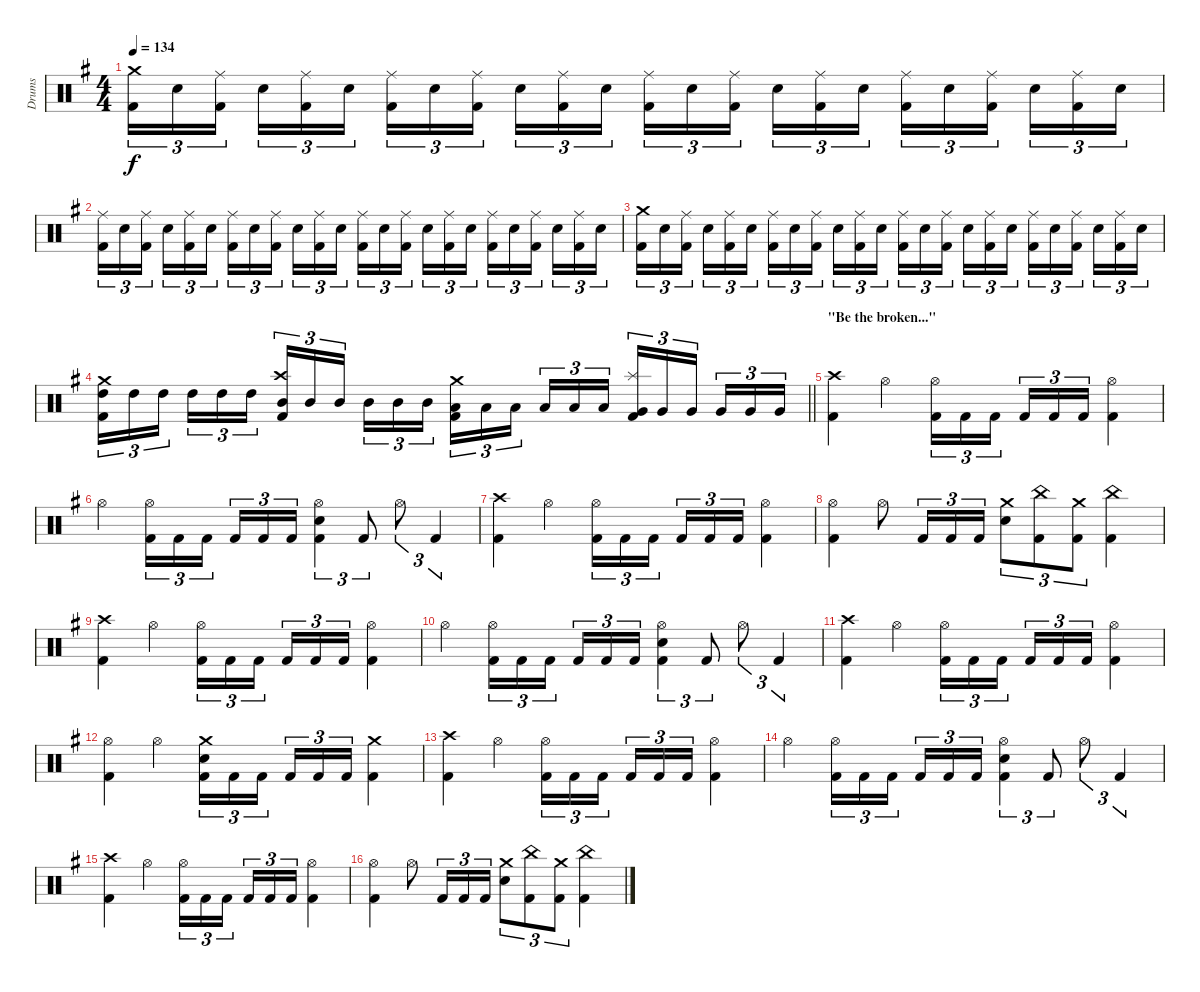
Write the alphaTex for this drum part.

\track ("Drums" "Drums") {instrument percussion}
\staff {score}
\articulation defaults
\ts (4 4)
\tempo 134
\clef neutral
\ks g
("Crash medium (hit)" "Kick (hit) 2").16{tu (3 2) dy f} "Electric Snare (hit)".16{tu (3 2)} ("Ride (middle)" "Kick (hit) 2").16{tu (3 2) beam splitsecondary} "Electric Snare (hit)".16{tu (3 2)} ("Ride (middle)" "Kick (hit) 2").16{tu (3 2)} "Electric Snare (hit)".16{tu (3 2)} ("Ride (middle)" "Kick (hit) 2").16{tu (3 2)} "Electric Snare (hit)".16{tu (3 2)} ("Ride (middle)" "Kick (hit) 2").16{tu (3 2) beam splitsecondary} "Electric Snare (hit)".16{tu (3 2)} ("Ride (middle)" "Kick (hit) 2").16{tu (3 2)} "Electric Snare (hit)".16{tu (3 2)} ("Ride (middle)" "Kick (hit) 2").16{tu (3 2)} "Electric Snare (hit)".16{tu (3 2)} ("Ride (middle)" "Kick (hit) 2").16{tu (3 2) beam splitsecondary} "Electric Snare (hit)".16{tu (3 2)} ("Ride (middle)" "Kick (hit) 2").16{tu (3 2)} "Electric Snare (hit)".16{tu (3 2)} ("Ride (middle)" "Kick (hit) 2").16{tu (3 2)} "Electric Snare (hit)".16{tu (3 2)} ("Ride (middle)" "Kick (hit) 2").16{tu (3 2) beam splitsecondary} "Electric Snare (hit)".16{tu (3 2)} ("Ride (middle)" "Kick (hit) 2").16{tu (3 2)} "Electric Snare (hit)".16{tu (3 2)} |
("Ride (middle)" "Kick (hit) 2").16{tu (3 2)} "Electric Snare (hit)".16{tu (3 2)} ("Ride (middle)" "Kick (hit) 2").16{tu (3 2) beam splitsecondary} "Electric Snare (hit)".16{tu (3 2)} ("Ride (middle)" "Kick (hit) 2").16{tu (3 2)} "Electric Snare (hit)".16{tu (3 2)} ("Ride (middle)" "Kick (hit) 2").16{tu (3 2)} "Electric Snare (hit)".16{tu (3 2)} ("Ride (middle)" "Kick (hit) 2").16{tu (3 2) beam splitsecondary} "Electric Snare (hit)".16{tu (3 2)} ("Ride (middle)" "Kick (hit) 2").16{tu (3 2)} "Electric Snare (hit)".16{tu (3 2)} ("Ride (middle)" "Kick (hit) 2").16{tu (3 2)} "Electric Snare (hit)".16{tu (3 2)} ("Ride (middle)" "Kick (hit) 2").16{tu (3 2) beam splitsecondary} "Electric Snare (hit)".16{tu (3 2)} ("Ride (middle)" "Kick (hit) 2").16{tu (3 2)} "Electric Snare (hit)".16{tu (3 2)} ("Ride (middle)" "Kick (hit) 2").16{tu (3 2)} "Electric Snare (hit)".16{tu (3 2)} ("Ride (middle)" "Kick (hit) 2").16{tu (3 2) beam splitsecondary} "Electric Snare (hit)".16{tu (3 2)} ("Ride (middle)" "Kick (hit) 2").16{tu (3 2)} "Electric Snare (hit)".16{tu (3 2)} |
("Crash medium (hit)" "Kick (hit) 2").16{tu (3 2)} "Electric Snare (hit)".16{tu (3 2)} ("Ride (middle)" "Kick (hit) 2").16{tu (3 2) beam splitsecondary} "Electric Snare (hit)".16{tu (3 2)} ("Ride (middle)" "Kick (hit) 2").16{tu (3 2)} "Electric Snare (hit)".16{tu (3 2)} ("Ride (middle)" "Kick (hit) 2").16{tu (3 2)} "Electric Snare (hit)".16{tu (3 2)} ("Ride (middle)" "Kick (hit) 2").16{tu (3 2) beam splitsecondary} "Electric Snare (hit)".16{tu (3 2)} ("Ride (middle)" "Kick (hit) 2").16{tu (3 2)} "Electric Snare (hit)".16{tu (3 2)} ("Ride (middle)" "Kick (hit) 2").16{tu (3 2)} "Electric Snare (hit)".16{tu (3 2)} ("Ride (middle)" "Kick (hit) 2").16{tu (3 2) beam splitsecondary} "Electric Snare (hit)".16{tu (3 2)} ("Ride (middle)" "Kick (hit) 2").16{tu (3 2)} "Electric Snare (hit)".16{tu (3 2)} ("Ride (middle)" "Kick (hit) 2").16{tu (3 2)} "Electric Snare (hit)".16{tu (3 2)} ("Ride (middle)" "Kick (hit) 2").16{tu (3 2) beam splitsecondary} "Electric Snare (hit)".16{tu (3 2)} ("Ride (middle)" "Kick (hit) 2").16{tu (3 2)} "Electric Snare (hit)".16{tu (3 2)} |
\barLineRight lightlight
("Crash medium (hit)" "High Tom (hit)" "Kick (hit) 2").16{tu (3 2)} "High Tom (hit)".16{tu (3 2)} "High Tom (hit)".16{tu (3 2) beam splitsecondary} "High Tom (hit)".16{tu (3 2)} "High Tom (hit)".16{tu (3 2)} "High Tom (hit)".16{tu (3 2)} ("Crash high (hit)" "Mid Tom (hit)" "Kick (hit) 2").16{tu (3 2)} "Mid Tom (hit)".16{tu (3 2)} "Mid Tom (hit)".16{tu (3 2) beam splitsecondary} "Mid Tom (hit)".16{tu (3 2)} "Mid Tom (hit)".16{tu (3 2)} "Mid Tom (hit)".16{tu (3 2)} ("Crash medium (hit)" "Low Tom (hit)" "Kick (hit) 2").16{tu (3 2)} "Low Tom (hit)".16{tu (3 2)} "Low Tom (hit)".16{tu (3 2) beam splitsecondary} "Low Tom (hit)".16{tu (3 2)} "Low Tom (hit)".16{tu (3 2)} "Low Tom (hit)".16{tu (3 2)} ("Splash (hit)" "Very Low Tom (hit)" "Kick (hit) 2").16{tu (3 2)} "Very Low Tom (hit)".16{tu (3 2)} "Very Low Tom (hit)".16{tu (3 2) beam splitsecondary} "Very Low Tom (hit)".16{tu (3 2)} "Very Low Tom (hit)".16{tu (3 2)} "Very Low Tom (hit)".16{tu (3 2)} |
\section ("" "\"Be the broken...\"")
("Crash high (hit)" "Kick (hit) 2").4 "Hi-Hat (open)".4 ("Hi-Hat (open)" "Kick (hit) 2").16{tu (3 2)} "Kick (hit) 2".16{tu (3 2)} "Kick (hit) 2".16{tu (3 2) beam splitsecondary} "Kick (hit) 2".16{tu (3 2)} "Kick (hit) 2".16{tu (3 2)} "Kick (hit) 2".16{tu (3 2)} ("Hi-Hat (open)" "Kick (hit) 2").4 |
"Hi-Hat (open)".4 ("Hi-Hat (open)" "Kick (hit) 2").16{tu (3 2)} "Kick (hit) 2".16{tu (3 2)} "Kick (hit) 2".16{tu (3 2) beam splitsecondary} "Kick (hit) 2".16{tu (3 2)} "Kick (hit) 2".16{tu (3 2)} "Kick (hit) 2".16{tu (3 2)} ("Hi-Hat (open)" "Electric Snare (hit)" "Kick (hit) 2").4{tu (3 2)} "Kick (hit) 2".8{tu (3 2)} "Hi-Hat (open)".8{tu (3 2)} "Kick (hit) 2".4{tu (3 2)} |
("Crash high (hit)" "Kick (hit) 2").4 "Hi-Hat (open)".4 ("Hi-Hat (open)" "Kick (hit) 2").16{tu (3 2)} "Kick (hit) 2".16{tu (3 2)} "Kick (hit) 2".16{tu (3 2) beam splitsecondary} "Kick (hit) 2".16{tu (3 2)} "Kick (hit) 2".16{tu (3 2)} "Kick (hit) 2".16{tu (3 2)} ("Hi-Hat (open)" "Kick (hit) 2").4 |
("Hi-Hat (open)" "Kick (hit) 2").4 "Hi-Hat (open)".8 "Kick (hit) 2".16{tu (3 2)} "Kick (hit) 2".16{tu (3 2)} "Kick (hit) 2".16{tu (3 2)} ("Crash medium (hit)" "Electric Snare (hit)").8{tu (3 2)} ("China (hit)" "Kick (hit) 2").8{tu (3 2)} ("Crash medium (hit)" "Kick (hit) 2").8{tu (3 2)} ("China (hit)" "Kick (hit) 2").4 |
("Crash high (hit)" "Kick (hit) 2").4 "Hi-Hat (open)".4 ("Hi-Hat (open)" "Kick (hit) 2").16{tu (3 2)} "Kick (hit) 2".16{tu (3 2)} "Kick (hit) 2".16{tu (3 2) beam splitsecondary} "Kick (hit) 2".16{tu (3 2)} "Kick (hit) 2".16{tu (3 2)} "Kick (hit) 2".16{tu (3 2)} ("Hi-Hat (open)" "Kick (hit) 2").4 |
"Hi-Hat (open)".4 ("Hi-Hat (open)" "Kick (hit) 2").16{tu (3 2)} "Kick (hit) 2".16{tu (3 2)} "Kick (hit) 2".16{tu (3 2) beam splitsecondary} "Kick (hit) 2".16{tu (3 2)} "Kick (hit) 2".16{tu (3 2)} "Kick (hit) 2".16{tu (3 2)} ("Hi-Hat (open)" "Electric Snare (hit)" "Kick (hit) 2").4{tu (3 2)} "Kick (hit) 2".8{tu (3 2)} "Hi-Hat (open)".8{tu (3 2)} "Kick (hit) 2".4{tu (3 2)} |
("Crash high (hit)" "Kick (hit) 2").4 "Hi-Hat (open)".4 ("Hi-Hat (open)" "Kick (hit) 2").16{tu (3 2)} "Kick (hit) 2".16{tu (3 2)} "Kick (hit) 2".16{tu (3 2) beam splitsecondary} "Kick (hit) 2".16{tu (3 2)} "Kick (hit) 2".16{tu (3 2)} "Kick (hit) 2".16{tu (3 2)} ("Hi-Hat (open)" "Kick (hit) 2").4 |
("Hi-Hat (open)" "Kick (hit) 2").4 "Hi-Hat (open)".4 ("Crash medium (hit)" "Electric Snare (hit)" "Kick (hit) 2").16{tu (3 2)} "Kick (hit) 2".16{tu (3 2)} "Kick (hit) 2".16{tu (3 2) beam splitsecondary} "Kick (hit) 2".16{tu (3 2)} "Kick (hit) 2".16{tu (3 2)} "Kick (hit) 2".16{tu (3 2)} ("Crash medium (hit)" "Kick (hit) 2").4 |
("Crash high (hit)" "Kick (hit) 2").4 "Hi-Hat (open)".4 ("Hi-Hat (open)" "Kick (hit) 2").16{tu (3 2)} "Kick (hit) 2".16{tu (3 2)} "Kick (hit) 2".16{tu (3 2) beam splitsecondary} "Kick (hit) 2".16{tu (3 2)} "Kick (hit) 2".16{tu (3 2)} "Kick (hit) 2".16{tu (3 2)} ("Hi-Hat (open)" "Kick (hit) 2").4 |
"Hi-Hat (open)".4 ("Hi-Hat (open)" "Kick (hit) 2").16{tu (3 2)} "Kick (hit) 2".16{tu (3 2)} "Kick (hit) 2".16{tu (3 2) beam splitsecondary} "Kick (hit) 2".16{tu (3 2)} "Kick (hit) 2".16{tu (3 2)} "Kick (hit) 2".16{tu (3 2)} ("Hi-Hat (open)" "Electric Snare (hit)" "Kick (hit) 2").4{tu (3 2)} "Kick (hit) 2".8{tu (3 2)} "Hi-Hat (open)".8{tu (3 2)} "Kick (hit) 2".4{tu (3 2)} |
("Crash high (hit)" "Kick (hit) 2").4 "Hi-Hat (open)".4 ("Hi-Hat (open)" "Kick (hit) 2").16{tu (3 2)} "Kick (hit) 2".16{tu (3 2)} "Kick (hit) 2".16{tu (3 2) beam splitsecondary} "Kick (hit) 2".16{tu (3 2)} "Kick (hit) 2".16{tu (3 2)} "Kick (hit) 2".16{tu (3 2)} ("Hi-Hat (open)" "Kick (hit) 2").4 |
("Hi-Hat (open)" "Kick (hit) 2").4 "Hi-Hat (open)".8 "Kick (hit) 2".16{tu (3 2)} "Kick (hit) 2".16{tu (3 2)} "Kick (hit) 2".16{tu (3 2)} ("Crash medium (hit)" "Electric Snare (hit)").8{tu (3 2)} ("China (hit)" "Kick (hit) 2").8{tu (3 2)} ("Crash medium (hit)" "Kick (hit) 2").8{tu (3 2)} ("China (hit)" "Kick (hit) 2").4
